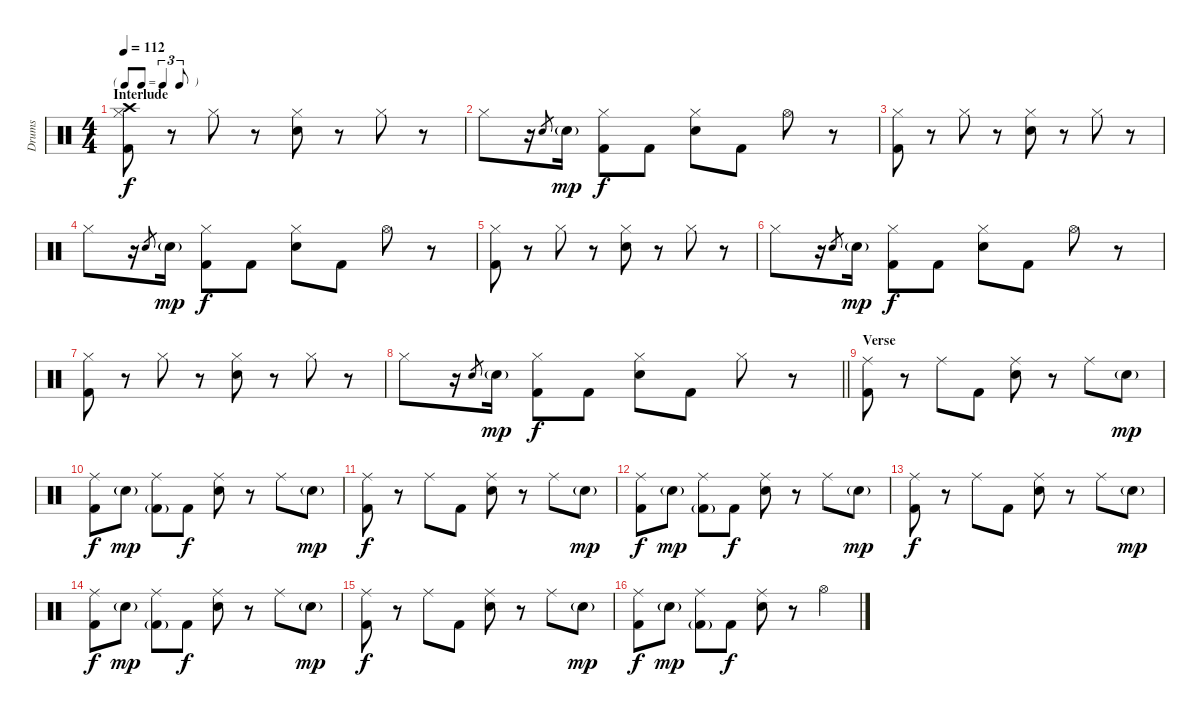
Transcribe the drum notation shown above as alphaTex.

\track ("Drums" "Drums") {instrument percussion}
\staff {score}
\articulation defaults
\ts (4 4)
\tf triplet8th
\section ("" "Interlude")
\tempo 112
\clef neutral
\ks c
("Crash high (hit)" "Hi-Hat (closed)" "Kick (hit) 2").8{dy f} r.8 "Hi-Hat (closed)".8 r.8 ("Hi-Hat (closed)" "Snare (hit) 2").8 r.8 "Hi-Hat (closed)".8 r.8 |
"Hi-Hat (closed)".8 r.16 "Snare (hit) 2".8{gr} "Snare (hit) 2"{g}.16{dy mp} ("Hi-Hat (closed)" "Kick (hit) 2").8{dy f} "Kick (hit) 2".8 ("Hi-Hat (closed)" "Snare (hit) 2").8 "Kick (hit) 2".8 "Hi-Hat (open)".8 r.8 |
("Hi-Hat (closed)" "Kick (hit) 2").8 r.8 "Hi-Hat (closed)".8 r.8 ("Hi-Hat (closed)" "Snare (hit) 2").8 r.8 "Hi-Hat (closed)".8 r.8 |
"Hi-Hat (closed)".8 r.16 "Snare (hit) 2".8{gr} "Snare (hit) 2"{g}.16{dy mp} ("Hi-Hat (closed)" "Kick (hit) 2").8{dy f} "Kick (hit) 2".8 ("Hi-Hat (closed)" "Snare (hit) 2").8 "Kick (hit) 2".8 "Hi-Hat (open)".8 r.8 |
("Hi-Hat (closed)" "Kick (hit) 2").8 r.8 "Hi-Hat (closed)".8 r.8 ("Hi-Hat (closed)" "Snare (hit) 2").8 r.8 "Hi-Hat (closed)".8 r.8 |
"Hi-Hat (closed)".8 r.16 "Snare (hit) 2".8{gr} "Snare (hit) 2"{g}.16{dy mp} ("Hi-Hat (closed)" "Kick (hit) 2").8{dy f} "Kick (hit) 2".8 ("Hi-Hat (closed)" "Snare (hit) 2").8 "Kick (hit) 2".8 "Hi-Hat (open)".8 r.8 |
("Hi-Hat (closed)" "Kick (hit) 2").8 r.8 "Hi-Hat (closed)".8 r.8 ("Hi-Hat (closed)" "Snare (hit) 2").8 r.8 "Hi-Hat (closed)".8 r.8 |
\barLineRight lightlight "Hi-Hat (closed)".8
r.16 "Snare (hit) 2".8{gr} "Snare (hit) 2"{g}.16{dy mp} ("Hi-Hat (closed)" "Kick (hit) 2").8{dy f} "Kick (hit) 2".8 ("Hi-Hat (closed)" "Snare (hit) 2").8 "Kick (hit) 2".8 "Hi-Hat (closed)".8 r.8 |
\section ("" "Verse")
("Ride (middle)" "Kick (hit) 2").8 r.8 "Ride (middle)".8 "Kick (hit) 2".8 ("Ride (middle)" "Snare (hit) 2").8 r.8 "Ride (middle)".8 "Snare (hit) 2"{g}.8{dy mp} |
("Ride (middle)" "Kick (hit) 2").8{dy f} "Snare (hit) 2"{g}.8{dy mp} ("Ride (middle)" "Kick (hit) 2"{g}).8 "Kick (hit) 2".8{dy f} ("Ride (middle)" "Snare (hit) 2").8 r.8 "Ride (middle)".8 "Snare (hit) 2"{g}.8{dy mp} |
("Ride (middle)" "Kick (hit) 2").8{dy f} r.8 "Ride (middle)".8 "Kick (hit) 2".8 ("Ride (middle)" "Snare (hit) 2").8 r.8 "Ride (middle)".8 "Snare (hit) 2"{g}.8{dy mp} |
("Ride (middle)" "Kick (hit) 2").8{dy f} "Snare (hit) 2"{g}.8{dy mp} ("Ride (middle)" "Kick (hit) 2"{g}).8 "Kick (hit) 2".8{dy f} ("Ride (middle)" "Snare (hit) 2").8 r.8 "Ride (middle)".8 "Snare (hit) 2"{g}.8{dy mp} |
("Ride (middle)" "Kick (hit) 2").8{dy f} r.8 "Ride (middle)".8 "Kick (hit) 2".8 ("Ride (middle)" "Snare (hit) 2").8 r.8 "Ride (middle)".8 "Snare (hit) 2"{g}.8{dy mp} |
("Ride (middle)" "Kick (hit) 2").8{dy f} "Snare (hit) 2"{g}.8{dy mp} ("Ride (middle)" "Kick (hit) 2"{g}).8 "Kick (hit) 2".8{dy f} ("Ride (middle)" "Snare (hit) 2").8 r.8 "Ride (middle)".8 "Snare (hit) 2"{g}.8{dy mp} |
("Ride (middle)" "Kick (hit) 2").8{dy f} r.8 "Ride (middle)".8 "Kick (hit) 2".8 ("Ride (middle)" "Snare (hit) 2").8 r.8 "Ride (middle)".8 "Snare (hit) 2"{g}.8{dy mp} |
("Ride (middle)" "Kick (hit) 2").8{dy f} "Snare (hit) 2"{g}.8{dy mp} ("Ride (middle)" "Kick (hit) 2"{g}).8 "Kick (hit) 2".8{dy f} ("Ride (middle)" "Snare (hit) 2").8 r.8 "Hi-Hat (open)".4
